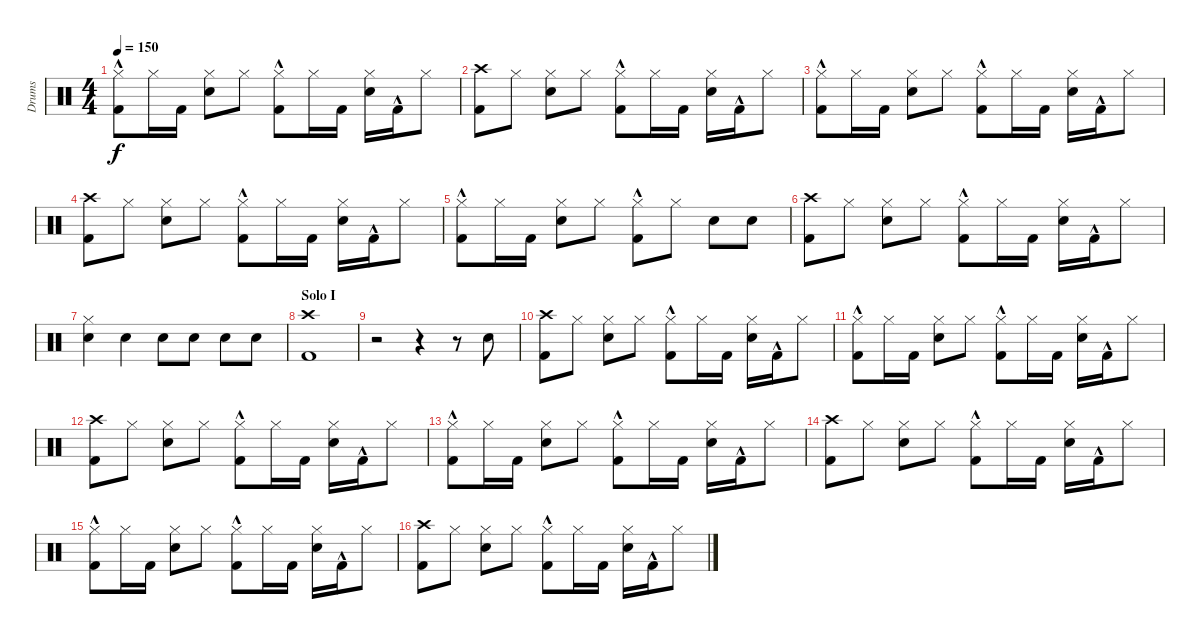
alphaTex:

\track ("Drums" "Drums") {instrument percussion}
\staff {score}
\articulation defaults
\ts (4 4)
\tempo 150
\clef neutral
\ks c
("Hi-Hat (closed)" "Kick (hit) 2"{hac}).8{dy f} "Hi-Hat (closed)".16 "Kick (hit) 2".16 ("Hi-Hat (closed)" "Electric Snare (hit)").8 "Hi-Hat (closed)".8 ("Hi-Hat (closed)" "Kick (hit) 2"{hac}).8 "Hi-Hat (closed)".16 "Kick (hit) 2".16 ("Hi-Hat (closed)" "Electric Snare (hit)").16 "Kick (hit) 2"{hac}.16 "Hi-Hat (closed)".8 |
("Crash high (hit)" "Kick (hit) 2").8 "Hi-Hat (closed)".8 ("Hi-Hat (closed)" "Electric Snare (hit)").8 "Hi-Hat (closed)".8 ("Hi-Hat (closed)" "Kick (hit) 2"{hac}).8 "Hi-Hat (closed)".16 "Kick (hit) 2".16 ("Hi-Hat (closed)" "Electric Snare (hit)").16 "Kick (hit) 2"{hac}.16 "Hi-Hat (closed)".8 |
("Hi-Hat (closed)" "Kick (hit) 2"{hac}).8 "Hi-Hat (closed)".16 "Kick (hit) 2".16 ("Hi-Hat (closed)" "Electric Snare (hit)").8 "Hi-Hat (closed)".8 ("Hi-Hat (closed)" "Kick (hit) 2"{hac}).8 "Hi-Hat (closed)".16 "Kick (hit) 2".16 ("Hi-Hat (closed)" "Electric Snare (hit)").16 "Kick (hit) 2"{hac}.16 "Hi-Hat (closed)".8 |
("Crash high (hit)" "Kick (hit) 2").8 "Hi-Hat (closed)".8 ("Hi-Hat (closed)" "Electric Snare (hit)").8 "Hi-Hat (closed)".8 ("Hi-Hat (closed)" "Kick (hit) 2"{hac}).8 "Hi-Hat (closed)".16 "Kick (hit) 2".16 ("Hi-Hat (closed)" "Electric Snare (hit)").16 "Kick (hit) 2"{hac}.16 "Hi-Hat (closed)".8 |
("Hi-Hat (closed)" "Kick (hit) 2"{hac}).8 "Hi-Hat (closed)".16 "Kick (hit) 2".16 ("Hi-Hat (closed)" "Electric Snare (hit)").8 "Hi-Hat (closed)".8 ("Hi-Hat (closed)" "Kick (hit) 2"{hac}).8 "Hi-Hat (closed)".8 "Electric Snare (hit)".8 "Electric Snare (hit)".8 |
("Crash high (hit)" "Kick (hit) 2").8 "Hi-Hat (closed)".8 ("Hi-Hat (closed)" "Electric Snare (hit)").8 "Hi-Hat (closed)".8 ("Hi-Hat (closed)" "Kick (hit) 2"{hac}).8 "Hi-Hat (closed)".16 "Kick (hit) 2".16 ("Hi-Hat (closed)" "Electric Snare (hit)").16 "Kick (hit) 2"{hac}.16 "Hi-Hat (closed)".8 |
("Hi-Hat (closed)" "Electric Snare (hit)").4 "Electric Snare (hit)".4 "Electric Snare (hit)".8 "Electric Snare (hit)".8 "Electric Snare (hit)".8 "Electric Snare (hit)".8 |
\section ("" "Solo I")
("Crash high (hit)" "Kick (hit) 2").1 |
r.2 r.4 r.8 "Electric Snare (hit)".8 |
("Crash high (hit)" "Kick (hit) 2").8 "Hi-Hat (closed)".8 ("Hi-Hat (closed)" "Electric Snare (hit)").8 "Hi-Hat (closed)".8 ("Hi-Hat (closed)" "Kick (hit) 2"{hac}).8 "Hi-Hat (closed)".16 "Kick (hit) 2".16 ("Hi-Hat (closed)" "Electric Snare (hit)").16 "Kick (hit) 2"{hac}.16 "Hi-Hat (closed)".8 |
("Hi-Hat (closed)" "Kick (hit) 2"{hac}).8 "Hi-Hat (closed)".16 "Kick (hit) 2".16 ("Hi-Hat (closed)" "Electric Snare (hit)").8 "Hi-Hat (closed)".8 ("Hi-Hat (closed)" "Kick (hit) 2"{hac}).8 "Hi-Hat (closed)".16 "Kick (hit) 2".16 ("Hi-Hat (closed)" "Electric Snare (hit)").16 "Kick (hit) 2"{hac}.16 "Hi-Hat (closed)".8 |
("Crash high (hit)" "Kick (hit) 2").8 "Hi-Hat (closed)".8 ("Hi-Hat (closed)" "Electric Snare (hit)").8 "Hi-Hat (closed)".8 ("Hi-Hat (closed)" "Kick (hit) 2"{hac}).8 "Hi-Hat (closed)".16 "Kick (hit) 2".16 ("Hi-Hat (closed)" "Electric Snare (hit)").16 "Kick (hit) 2"{hac}.16 "Hi-Hat (closed)".8 |
("Hi-Hat (closed)" "Kick (hit) 2"{hac}).8 "Hi-Hat (closed)".16 "Kick (hit) 2".16 ("Hi-Hat (closed)" "Electric Snare (hit)").8 "Hi-Hat (closed)".8 ("Hi-Hat (closed)" "Kick (hit) 2"{hac}).8 "Hi-Hat (closed)".16 "Kick (hit) 2".16 ("Hi-Hat (closed)" "Electric Snare (hit)").16 "Kick (hit) 2"{hac}.16 "Hi-Hat (closed)".8 |
("Crash high (hit)" "Kick (hit) 2").8 "Hi-Hat (closed)".8 ("Hi-Hat (closed)" "Electric Snare (hit)").8 "Hi-Hat (closed)".8 ("Hi-Hat (closed)" "Kick (hit) 2"{hac}).8 "Hi-Hat (closed)".16 "Kick (hit) 2".16 ("Hi-Hat (closed)" "Electric Snare (hit)").16 "Kick (hit) 2"{hac}.16 "Hi-Hat (closed)".8 |
("Hi-Hat (closed)" "Kick (hit) 2"{hac}).8 "Hi-Hat (closed)".16 "Kick (hit) 2".16 ("Hi-Hat (closed)" "Electric Snare (hit)").8 "Hi-Hat (closed)".8 ("Hi-Hat (closed)" "Kick (hit) 2"{hac}).8 "Hi-Hat (closed)".16 "Kick (hit) 2".16 ("Hi-Hat (closed)" "Electric Snare (hit)").16 "Kick (hit) 2"{hac}.16 "Hi-Hat (closed)".8 |
("Crash high (hit)" "Kick (hit) 2").8 "Hi-Hat (closed)".8 ("Hi-Hat (closed)" "Electric Snare (hit)").8 "Hi-Hat (closed)".8 ("Hi-Hat (closed)" "Kick (hit) 2"{hac}).8 "Hi-Hat (closed)".16 "Kick (hit) 2".16 ("Hi-Hat (closed)" "Electric Snare (hit)").16 "Kick (hit) 2"{hac}.16 "Hi-Hat (closed)".8
